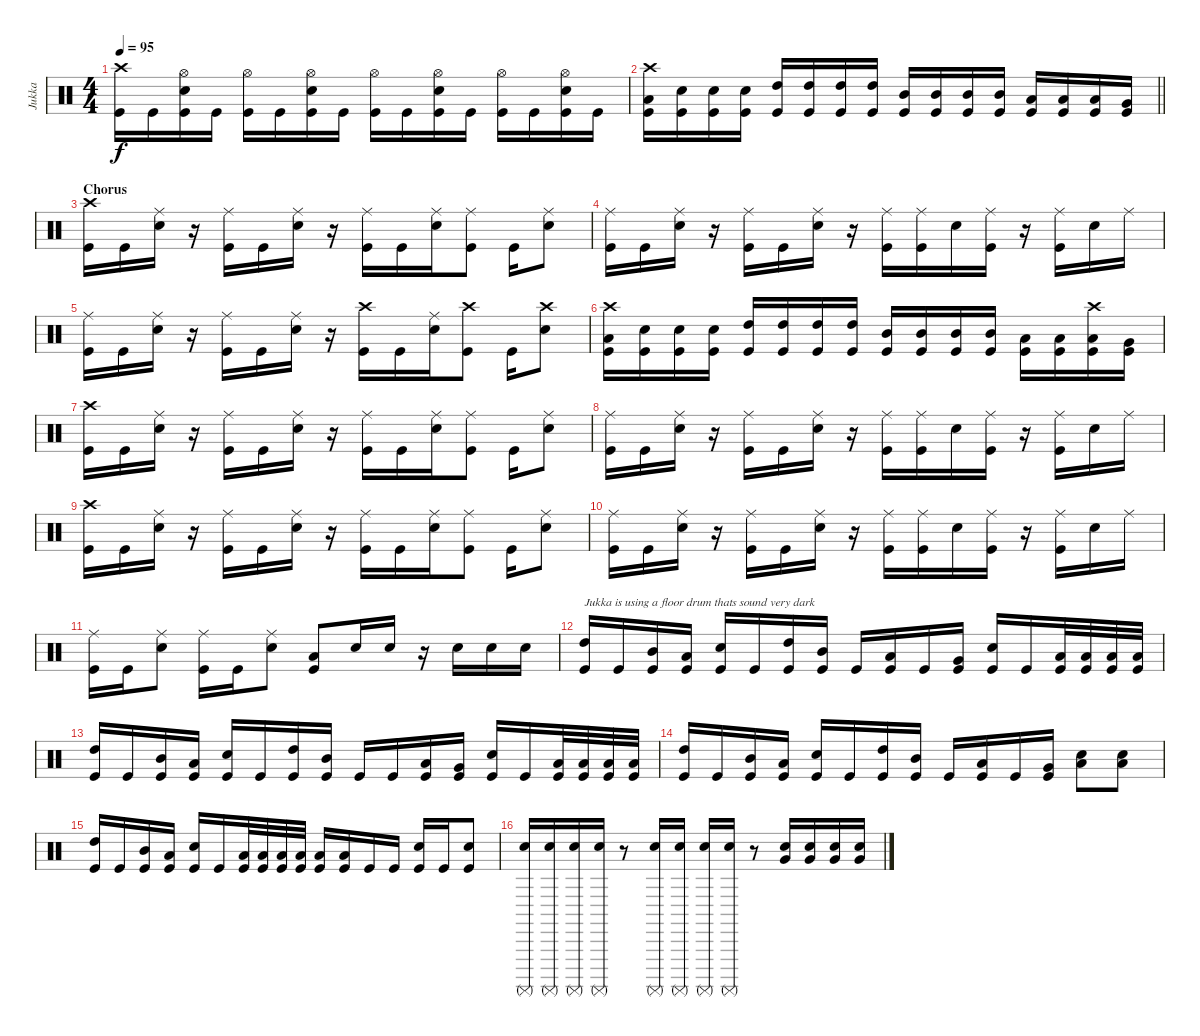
\track ("Jukka" "Jukka") {instrument percussion}
\staff {score}
\articulation defaults
\ts (4 4)
\tempo 95
\clef neutral
\ks c
("Crash high (hit)" "Kick (hit)").16{dy f} "Kick (hit)".16 ("Hi-Hat (open)" "Electric Snare (hit)" "Kick (hit)").16 "Kick (hit)".16 ("Hi-Hat (open)" "Kick (hit)").16 "Kick (hit)".16 ("Hi-Hat (open)" "Electric Snare (hit)" "Kick (hit)").16 "Kick (hit)".16 ("Hi-Hat (open)" "Kick (hit)").16 "Kick (hit)".16 ("Hi-Hat (open)" "Electric Snare (hit)" "Kick (hit)").16 "Kick (hit)".16 ("Hi-Hat (open)" "Kick (hit)").16 "Kick (hit)".16 ("Hi-Hat (open)" "Electric Snare (hit)" "Kick (hit)").16 "Kick (hit)".16 |
\barLineRight lightlight
("Crash high (hit)" "Low Tom (hit)" "Kick (hit)").16 ("Electric Snare (hit)" "Kick (hit)").16 ("Electric Snare (hit)" "Kick (hit)").16 ("Electric Snare (hit)" "Kick (hit)").16 ("High Tom (hit)" "Kick (hit)").16 ("High Tom (hit)" "Kick (hit)").16 ("High Tom (hit)" "Kick (hit)").16 ("High Tom (hit)" "Kick (hit)").16 ("Mid Tom (hit)" "Kick (hit)").16 ("Mid Tom (hit)" "Kick (hit)").16 ("Mid Tom (hit)" "Kick (hit)").16 ("Mid Tom (hit)" "Kick (hit)").16 ("Low Tom (hit)" "Kick (hit)").16 ("Low Tom (hit)" "Kick (hit)").16 ("Low Tom (hit)" "Kick (hit)").16 ("Very Low Tom (hit)" "Kick (hit)").16 |
\section ("" "Chorus")
("Crash high (hit)" "Kick (hit)").16 "Kick (hit)".16 ("Ride (middle)" "Electric Snare (hit)").16 r.16 ("Ride (middle)" "Kick (hit)").16 "Kick (hit)".16 ("Ride (middle)" "Electric Snare (hit)").16 r.16 ("Ride (middle)" "Kick (hit)").16 "Kick (hit)".16 ("Ride (middle)" "Electric Snare (hit)").16 ("Ride (middle)" "Kick (hit)").8 "Kick (hit)".16 ("Ride (middle)" "Electric Snare (hit)").8 |
("Ride (middle)" "Kick (hit)").16 "Kick (hit)".16 ("Ride (middle)" "Electric Snare (hit)").16 r.16 ("Ride (middle)" "Kick (hit)").16 "Kick (hit)".16 ("Ride (middle)" "Electric Snare (hit)").16 r.16 ("Ride (middle)" "Kick (hit)").16 ("Ride (middle)" "Kick (hit)").16 "Electric Snare (hit)".16 ("Ride (middle)" "Kick (hit)").16 r.16 ("Ride (middle)" "Kick (hit)").16 "Electric Snare (hit)".16 "Ride (middle)".16 |
("Ride (middle)" "Kick (hit)").16 "Kick (hit)".16 ("Ride (middle)" "Electric Snare (hit)").16 r.16 ("Ride (middle)" "Kick (hit)").16 "Kick (hit)".16 ("Ride (middle)" "Electric Snare (hit)").16 r.16 ("Crash high (hit)" "Kick (hit)").16 "Kick (hit)".16 ("Ride (middle)" "Electric Snare (hit)").16 ("Crash high (hit)" "Kick (hit)").8 "Kick (hit)".16 ("Crash high (hit)" "Electric Snare (hit)").8 |
("Crash high (hit)" "Low Tom (hit)" "Kick (hit)").16 ("Electric Snare (hit)" "Kick (hit)").16 ("Electric Snare (hit)" "Kick (hit)").16 ("Electric Snare (hit)" "Kick (hit)").16 ("High Tom (hit)" "Kick (hit)").16 ("High Tom (hit)" "Kick (hit)").16 ("High Tom (hit)" "Kick (hit)").16 ("High Tom (hit)" "Kick (hit)").16 ("Mid Tom (hit)" "Kick (hit)").16 ("Mid Tom (hit)" "Kick (hit)").16 ("Mid Tom (hit)" "Kick (hit)").16 ("Mid Tom (hit)" "Kick (hit)").16 ("Low Tom (hit)" "Kick (hit)").16 ("Low Tom (hit)" "Kick (hit)").16 ("Crash high (hit)" "Low Tom (hit)" "Kick (hit)").16 ("Very Low Tom (hit)" "Kick (hit)").16 |
("Crash high (hit)" "Kick (hit)").16 "Kick (hit)".16 ("Ride (middle)" "Electric Snare (hit)").16 r.16 ("Ride (middle)" "Kick (hit)").16 "Kick (hit)".16 ("Ride (middle)" "Electric Snare (hit)").16 r.16 ("Ride (middle)" "Kick (hit)").16 "Kick (hit)".16 ("Ride (middle)" "Electric Snare (hit)").16 ("Ride (middle)" "Kick (hit)").8 "Kick (hit)".16 ("Ride (middle)" "Electric Snare (hit)").8 |
("Ride (middle)" "Kick (hit)").16 "Kick (hit)".16 ("Ride (middle)" "Electric Snare (hit)").16 r.16 ("Ride (middle)" "Kick (hit)").16 "Kick (hit)".16 ("Ride (middle)" "Electric Snare (hit)").16 r.16 ("Ride (middle)" "Kick (hit)").16 ("Ride (middle)" "Kick (hit)").16 "Electric Snare (hit)".16 ("Ride (middle)" "Kick (hit)").16 r.16 ("Ride (middle)" "Kick (hit)").16 "Electric Snare (hit)".16 "Ride (middle)".16 |
("Crash high (hit)" "Kick (hit)").16 "Kick (hit)".16 ("Ride (middle)" "Electric Snare (hit)").16 r.16 ("Ride (middle)" "Kick (hit)").16 "Kick (hit)".16 ("Ride (middle)" "Electric Snare (hit)").16 r.16 ("Ride (middle)" "Kick (hit)").16 "Kick (hit)".16 ("Ride (middle)" "Electric Snare (hit)").16 ("Ride (middle)" "Kick (hit)").8 "Kick (hit)".16 ("Ride (middle)" "Electric Snare (hit)").8 |
("Ride (middle)" "Kick (hit)").16 "Kick (hit)".16 ("Ride (middle)" "Electric Snare (hit)").16 r.16 ("Ride (middle)" "Kick (hit)").16 "Kick (hit)".16 ("Ride (middle)" "Electric Snare (hit)").16 r.16 ("Ride (middle)" "Kick (hit)").16 ("Ride (middle)" "Kick (hit)").16 "Electric Snare (hit)".16 ("Ride (middle)" "Kick (hit)").16 r.16 ("Ride (middle)" "Kick (hit)").16 "Electric Snare (hit)".16 "Ride (middle)".16 |
("Ride (middle)" "Kick (hit)").16 "Kick (hit)".16 ("Ride (middle)" "Electric Snare (hit)").8 ("Ride (middle)" "Kick (hit)").16 "Kick (hit)".16 ("Ride (middle)" "Electric Snare (hit)").8 ("Low Floor Tom (hit)" "Kick (hit)").8 "Electric Snare (hit)".16 "Electric Snare (hit)".16 r.16 "Electric Snare (hit)".16 "Electric Snare (hit)".16 "Electric Snare (hit)".16 |
("High Tom (hit)" "Kick (hit)").16{txt "Jukka is using a floor drum thats sound very dark"} "Kick (hit)".16 ("Mid Tom (hit)" "Kick (hit)").16 ("Low Tom (hit)" "Kick (hit)").16 ("Electric Snare (hit)" "Kick (hit)").16 "Kick (hit)".16 ("High Tom (hit)" "Kick (hit)").16 ("Mid Tom (hit)" "Kick (hit)").16 "Kick (hit)".16 ("Low Tom (hit)" "Kick (hit)").16 "Kick (hit)".16 ("Very Low Tom (hit)" "Kick (hit)").16 ("Electric Snare (hit)" "Kick (hit)").16 "Kick (hit)".16 ("Low Floor Tom (hit)" "Kick (hit)").32 ("Low Floor Tom (hit)" "Kick (hit)").32 ("Low Floor Tom (hit)" "Kick (hit)").32 ("Low Floor Tom (hit)" "Kick (hit)").32 |
("High Tom (hit)" "Kick (hit)").16 "Kick (hit)".16 ("Mid Tom (hit)" "Kick (hit)").16 ("Low Tom (hit)" "Kick (hit)").16 ("Electric Snare (hit)" "Kick (hit)").16 "Kick (hit)".16 ("High Tom (hit)" "Kick (hit)").16 ("Mid Tom (hit)" "Kick (hit)").16 "Kick (hit)".16 "Kick (hit)".16 ("Low Tom (hit)" "Kick (hit)").16 ("Very Low Tom (hit)" "Kick (hit)").16 ("Electric Snare (hit)" "Kick (hit)").16 "Kick (hit)".16 ("Low Floor Tom (hit)" "Kick (hit)").32 ("Low Floor Tom (hit)" "Kick (hit)").32 ("Low Floor Tom (hit)" "Kick (hit)").32 ("Low Floor Tom (hit)" "Kick (hit)").32 |
("High Tom (hit)" "Kick (hit)").16 "Kick (hit)".16 ("Mid Tom (hit)" "Kick (hit)").16 ("Low Tom (hit)" "Kick (hit)").16 ("Electric Snare (hit)" "Kick (hit)").16 "Kick (hit)".16 ("High Tom (hit)" "Kick (hit)").16 ("Mid Tom (hit)" "Kick (hit)").16 "Kick (hit)".16 ("Low Tom (hit)" "Kick (hit)").16 "Kick (hit)".16 ("Very Low Tom (hit)" "Kick (hit)").16 ("Electric Snare (hit)" "Low Floor Tom (hit)").8 ("Electric Snare (hit)" "Low Floor Tom (hit)").8 |
("High Tom (hit)" "Kick (hit)").16 "Kick (hit)".16 ("Mid Tom (hit)" "Kick (hit)").16 ("Low Tom (hit)" "Kick (hit)").16 ("Electric Snare (hit)" "Kick (hit)").16 "Kick (hit)".16 ("Low Floor Tom (hit)" "Kick (hit)").32 ("Low Floor Tom (hit)" "Kick (hit)").32 ("Low Floor Tom (hit)" "Kick (hit)").32 ("Low Floor Tom (hit)" "Kick (hit)").32 ("Low Floor Tom (hit)" "Kick (hit)").16 ("Low Tom (hit)" "Kick (hit)").16 "Kick (hit)".16 "Kick (hit)".16 ("Electric Snare (hit)" "Kick (hit)").16 "Kick (hit)".16 ("Electric Snare (hit)" "Kick (hit)").8 |
("Surdo (mute)" "Electric Snare (hit)").16 ("Surdo (mute)" "Electric Snare (hit)").16 ("Surdo (mute)" "Electric Snare (hit)").16 ("Surdo (mute)" "Electric Snare (hit)").16 r.8 ("Surdo (mute)" "Electric Snare (hit)").16 ("Surdo (mute)" "Electric Snare (hit)").16 ("Surdo (mute)" "Electric Snare (hit)").16 ("Surdo (mute)" "Electric Snare (hit)").16 r.8 ("Very Low Tom (hit)" "Electric Snare (hit)").16 ("Very Low Tom (hit)" "Electric Snare (hit)").16 ("Very Low Tom (hit)" "Electric Snare (hit)").16 ("Very Low Tom (hit)" "Electric Snare (hit)").16
